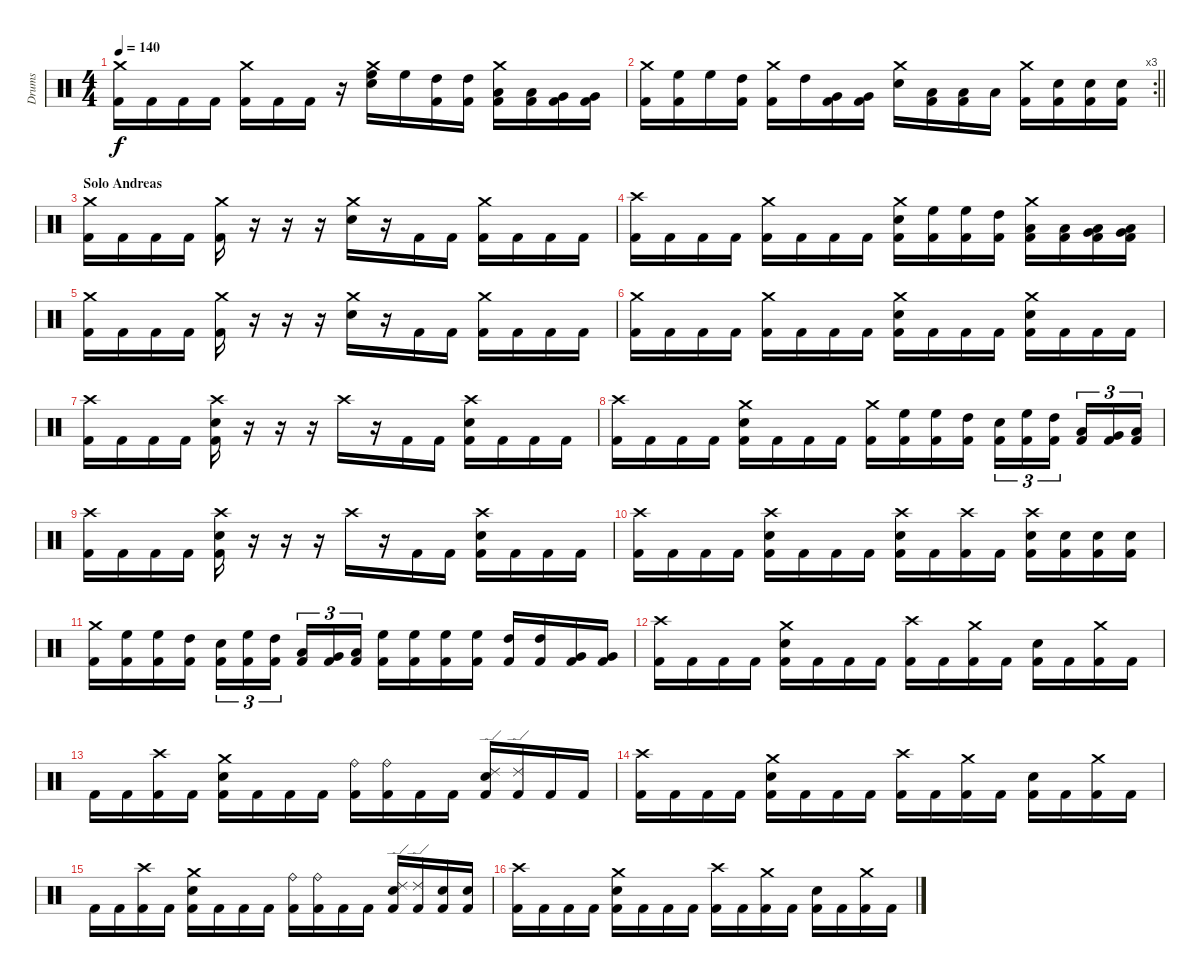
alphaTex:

\track ("Drums" "Drums") {mute instrument percussion}
\staff {score}
\articulation defaults
\ts (4 4)
\tempo 140
\clef neutral
\ks c
("Crash medium (hit)" "Kick (hit) 2").16{dy f} "Kick (hit) 2".16 "Kick (hit) 2".16 "Kick (hit) 2".16 ("Crash medium (hit)" "Kick (hit) 2").16 "Kick (hit) 2".16 "Kick (hit) 2".16 r.16 ("Crash medium (hit)" "High Floor Tom (hit)" "Electric Snare (hit)").16 "High Floor Tom (hit)".16 ("High Tom (hit)" "Kick (hit) 2").16 ("High Tom (hit)" "Kick (hit) 2").16 ("Crash medium (hit)" "Low Tom (hit)" "Kick (hit) 2").16 ("Low Tom (hit)" "Kick (hit) 2").16 ("Very Low Tom (hit)" "Kick (hit) 2").16 ("Very Low Tom (hit)" "Kick (hit) 2").16 |
\rc 3
\barLineRight lightlight
("Crash medium (hit)" "Kick (hit) 2").16 ("High Floor Tom (hit)" "Kick (hit) 2").16 "High Floor Tom (hit)".16 ("High Tom (hit)" "Kick (hit) 2").16 ("Crash medium (hit)" "Kick (hit) 2").16 "High Tom (hit)".16 ("Very Low Tom (hit)" "Kick (hit) 2").16 ("Very Low Tom (hit)" "Kick (hit) 2").16 ("Crash medium (hit)" "Electric Snare (hit)").16 ("Low Floor Tom (hit)" "Kick (hit) 2").16 ("Low Floor Tom (hit)" "Kick (hit) 2").16 "Low Floor Tom (hit)".16 ("Crash medium (hit)" "Kick (hit) 2").16 ("Electric Snare (hit)" "Kick (hit) 2").16 ("Electric Snare (hit)" "Kick (hit) 2").16 ("Electric Snare (hit)" "Kick (hit) 2").16 |
\section ("" "Solo Andreas")
("Crash medium (hit)" "Kick (hit) 2").16 "Kick (hit) 2".16 "Kick (hit) 2".16 "Kick (hit) 2".16 ("Crash medium (hit)" "Kick (hit) 2").16 r.16 r.16 r.16 ("Crash medium (hit)" "Electric Snare (hit)").16 r.16 "Kick (hit) 2".16 "Kick (hit) 2".16 ("Crash medium (hit)" "Kick (hit) 2").16 "Kick (hit) 2".16 "Kick (hit) 2".16 "Kick (hit) 2".16 |
("Crash high (hit)" "Kick (hit) 2").16 "Kick (hit) 2".16 "Kick (hit) 2".16 "Kick (hit) 2".16 ("Crash medium (hit)" "Kick (hit) 2").16 "Kick (hit) 2".16 "Kick (hit) 2".16 "Kick (hit) 2".16 ("Crash medium (hit)" "Electric Snare (hit)" "Kick (hit) 2").16 ("High Floor Tom (hit)" "Kick (hit) 2").16 ("High Floor Tom (hit)" "Kick (hit) 2").16 ("High Tom (hit)" "Kick (hit) 2").16 ("Crash medium (hit)" "Low Tom (hit)" "Kick (hit) 2").16 ("Low Tom (hit)" "Kick (hit) 2").16 ("Low Floor Tom (hit)" "Very Low Tom (hit)" "Kick (hit) 2").16 ("Low Floor Tom (hit)" "Very Low Tom (hit)" "Kick (hit) 2").16 |
("Crash medium (hit)" "Kick (hit) 2").16 "Kick (hit) 2".16 "Kick (hit) 2".16 "Kick (hit) 2".16 ("Crash medium (hit)" "Kick (hit) 2").16 r.16 r.16 r.16 ("Crash medium (hit)" "Electric Snare (hit)").16 r.16 "Kick (hit) 2".16 "Kick (hit) 2".16 ("Crash medium (hit)" "Kick (hit) 2").16 "Kick (hit) 2".16 "Kick (hit) 2".16 "Kick (hit) 2".16 |
("Crash medium (hit)" "Kick (hit) 2").16 "Kick (hit) 2".16 "Kick (hit) 2".16 "Kick (hit) 2".16 ("Crash medium (hit)" "Kick (hit) 2").16 "Kick (hit) 2".16 "Kick (hit) 2".16 "Kick (hit) 2".16 ("Crash medium (hit)" "Electric Snare (hit)" "Kick (hit) 2").16 "Kick (hit) 2".16 "Kick (hit) 2".16 "Kick (hit) 2".16 ("Crash medium (hit)" "Electric Snare (hit)" "Kick (hit) 2").16 "Kick (hit) 2".16 "Kick (hit) 2".16 "Kick (hit) 2".16 |
("Crash high (hit)" "Kick (hit) 2").16 "Kick (hit) 2".16 "Kick (hit) 2".16 "Kick (hit) 2".16 ("Crash high (hit)" "Electric Snare (hit)" "Kick (hit) 2").16 r.16 r.16 r.16 "Crash high (hit)".16 r.16 "Kick (hit) 2".16 "Kick (hit) 2".16 ("Crash high (hit)" "Electric Snare (hit)" "Kick (hit) 2").16 "Kick (hit) 2".16 "Kick (hit) 2".16 "Kick (hit) 2".16 |
("Crash high (hit)" "Kick (hit) 2").16 "Kick (hit) 2".16 "Kick (hit) 2".16 "Kick (hit) 2".16 ("Crash medium (hit)" "Electric Snare (hit)" "Kick (hit) 2").16 "Kick (hit) 2".16 "Kick (hit) 2".16 "Kick (hit) 2".16 ("Crash medium (hit)" "Kick (hit) 2").16 ("High Floor Tom (hit)" "Kick (hit) 2").16 ("High Floor Tom (hit)" "Kick (hit) 2").16 ("High Tom (hit)" "Kick (hit) 2").16 ("Electric Snare (hit)" "Kick (hit) 2").16{tu (3 2)} ("High Floor Tom (hit)" "Kick (hit) 2").16{tu (3 2)} ("High Tom (hit)" "Kick (hit) 2").16{tu (3 2) beam splitsecondary} ("Low Tom (hit)" "Kick (hit) 2").16{tu (3 2)} ("Very Low Tom (hit)" "Kick (hit) 2").16{tu (3 2)} ("Low Floor Tom (hit)" "Kick (hit) 2").16{tu (3 2)} |
("Crash high (hit)" "Kick (hit) 2").16 "Kick (hit) 2".16 "Kick (hit) 2".16 "Kick (hit) 2".16 ("Crash high (hit)" "Electric Snare (hit)" "Kick (hit) 2").16 r.16 r.16 r.16 "Crash high (hit)".16 r.16 "Kick (hit) 2".16 "Kick (hit) 2".16 ("Crash high (hit)" "Electric Snare (hit)" "Kick (hit) 2").16 "Kick (hit) 2".16 "Kick (hit) 2".16 "Kick (hit) 2".16 |
("Crash high (hit)" "Kick (hit) 2").16 "Kick (hit) 2".16 "Kick (hit) 2".16 "Kick (hit) 2".16 ("Crash high (hit)" "Electric Snare (hit)" "Kick (hit) 2").16 "Kick (hit) 2".16 "Kick (hit) 2".16 "Kick (hit) 2".16 ("Crash high (hit)" "Electric Snare (hit)" "Kick (hit) 2").16 "Kick (hit) 2".16 ("Crash high (hit)" "Kick (hit) 2").16 "Kick (hit) 2".16 ("Crash high (hit)" "Electric Snare (hit)" "Kick (hit) 2").16 ("Electric Snare (hit)" "Kick (hit) 2").16 ("Electric Snare (hit)" "Kick (hit) 2").16 ("Electric Snare (hit)" "Kick (hit) 2").16 |
("Crash medium (hit)" "Kick (hit) 2").16 ("High Floor Tom (hit)" "Kick (hit) 2").16 ("High Floor Tom (hit)" "Kick (hit) 2").16 ("High Tom (hit)" "Kick (hit) 2").16 ("Electric Snare (hit)" "Kick (hit) 2").16{tu (3 2)} ("High Floor Tom (hit)" "Kick (hit) 2").16{tu (3 2)} ("High Tom (hit)" "Kick (hit) 2").16{tu (3 2) beam splitsecondary} ("Low Tom (hit)" "Kick (hit) 2").16{tu (3 2)} ("Very Low Tom (hit)" "Kick (hit) 2").16{tu (3 2)} ("Low Floor Tom (hit)" "Kick (hit) 2").16{tu (3 2)} ("High Floor Tom (hit)" "Kick (hit) 2").16 ("High Floor Tom (hit)" "Kick (hit) 2").16 ("High Floor Tom (hit)" "Kick (hit) 2").16 ("High Floor Tom (hit)" "Kick (hit) 2").16 ("High Tom (hit)" "Kick (hit) 2").16 ("High Tom (hit)" "Kick (hit) 2").16 ("Very Low Tom (hit)" "Kick (hit) 2").16 ("Very Low Tom (hit)" "Kick (hit) 2").16 |
("Crash high (hit)" "Kick (hit) 2").16 "Kick (hit) 2".16 "Kick (hit) 2".16 "Kick (hit) 2".16 ("Crash medium (hit)" "Electric Snare (hit)" "Kick (hit) 2").16 "Kick (hit) 2".16 "Kick (hit) 2".16 "Kick (hit) 2".16 ("Crash high (hit)" "Kick (hit) 2").16 "Kick (hit) 2".16 ("Crash medium (hit)" "Kick (hit) 2").16 "Kick (hit) 2".16 ("Electric Snare (hit)" "Kick (hit) 2").16 "Kick (hit) 2".16 ("Crash medium (hit)" "Kick (hit) 2").16 "Kick (hit) 2".16 |
"Kick (hit) 2".16 "Kick (hit) 2".16 ("Crash high (hit)" "Kick (hit) 2").16 "Kick (hit) 2".16 ("Crash medium (hit)" "Electric Snare (hit)" "Kick (hit) 2").16 "Kick (hit) 2".16 "Kick (hit) 2".16 "Kick (hit) 2".16 ("Ride (bell)" "Kick (hit) 2").16 ("Ride (bell)" "Kick (hit) 2").16 "Kick (hit) 2".16 "Kick (hit) 2".16 ("Ride (edge) 2" "Electric Snare (hit)" "Kick (hit) 2").16 ("Ride (edge) 2" "Kick (hit) 2").16 "Kick (hit) 2".16 "Kick (hit) 2".16 |
("Crash high (hit)" "Kick (hit) 2").16 "Kick (hit) 2".16 "Kick (hit) 2".16 "Kick (hit) 2".16 ("Crash medium (hit)" "Electric Snare (hit)" "Kick (hit) 2").16 "Kick (hit) 2".16 "Kick (hit) 2".16 "Kick (hit) 2".16 ("Crash high (hit)" "Kick (hit) 2").16 "Kick (hit) 2".16 ("Crash medium (hit)" "Kick (hit) 2").16 "Kick (hit) 2".16 ("Electric Snare (hit)" "Kick (hit) 2").16 "Kick (hit) 2".16 ("Crash medium (hit)" "Kick (hit) 2").16 "Kick (hit) 2".16 |
"Kick (hit) 2".16 "Kick (hit) 2".16 ("Crash high (hit)" "Kick (hit) 2").16 "Kick (hit) 2".16 ("Crash medium (hit)" "Electric Snare (hit)" "Kick (hit) 2").16 "Kick (hit) 2".16 "Kick (hit) 2".16 "Kick (hit) 2".16 ("Ride (bell)" "Kick (hit) 2").16 ("Ride (bell)" "Kick (hit) 2").16 "Kick (hit) 2".16 "Kick (hit) 2".16 ("Ride (edge) 2" "Electric Snare (hit)" "Kick (hit) 2").16 ("Ride (edge) 2" "Kick (hit) 2").16 ("Electric Snare (hit)" "Kick (hit) 2").16 ("Electric Snare (hit)" "Kick (hit) 2").16 |
("Crash high (hit)" "Kick (hit) 2").16 "Kick (hit) 2".16 "Kick (hit) 2".16 "Kick (hit) 2".16 ("Crash medium (hit)" "Electric Snare (hit)" "Kick (hit) 2").16 "Kick (hit) 2".16 "Kick (hit) 2".16 "Kick (hit) 2".16 ("Crash high (hit)" "Kick (hit) 2").16 "Kick (hit) 2".16 ("Crash medium (hit)" "Kick (hit) 2").16 "Kick (hit) 2".16 ("Electric Snare (hit)" "Kick (hit) 2").16 "Kick (hit) 2".16 ("Crash medium (hit)" "Kick (hit) 2").16 "Kick (hit) 2".16
